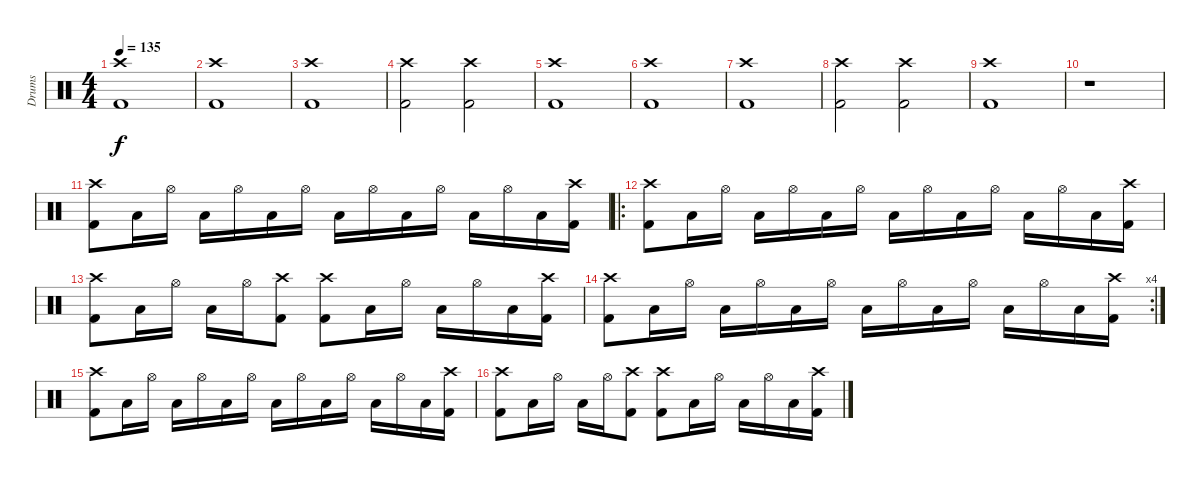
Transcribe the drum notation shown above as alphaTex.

\track ("Drums" "Drums") {instrument percussion}
\staff {score}
\articulation defaults
\ts (4 4)
\tempo 135
\clef neutral
\ks c
("Crash high (hit)" "Kick (hit) 2").1{dy f} |
("Crash high (hit)" "Kick (hit) 2").1 |
("Crash high (hit)" "Kick (hit) 2").1 |
("Crash high (hit)" "Kick (hit) 2").2 ("Crash high (hit)" "Kick (hit) 2").2 |
("Crash high (hit)" "Kick (hit) 2").1 |
("Crash high (hit)" "Kick (hit) 2").1 |
("Crash high (hit)" "Kick (hit) 2").1 |
("Crash high (hit)" "Kick (hit) 2").2 ("Crash high (hit)" "Kick (hit) 2").2 |
("Crash high (hit)" "Kick (hit) 2").1 |
r.1 |
("Crash high (hit)" "Kick (hit) 2").8 "Low Tom (hit)".16 "Hi-Hat (open)".16 "Low Tom (hit)".16 "Hi-Hat (open)".16 "Low Tom (hit)".16 "Hi-Hat (open)".16 "Low Tom (hit)".16 "Hi-Hat (open)".16 "Low Tom (hit)".16 "Hi-Hat (open)".16 "Low Tom (hit)".16 "Hi-Hat (open)".16 "Low Tom (hit)".16 ("Crash high (hit)" "Kick (hit) 2").16 |
\ro
("Crash high (hit)" "Kick (hit) 2").8 "Low Tom (hit)".16 "Hi-Hat (open)".16 "Low Tom (hit)".16 "Hi-Hat (open)".16 "Low Tom (hit)".16 "Hi-Hat (open)".16 "Low Tom (hit)".16 "Hi-Hat (open)".16 "Low Tom (hit)".16 "Hi-Hat (open)".16 "Low Tom (hit)".16 "Hi-Hat (open)".16 "Low Tom (hit)".16 ("Crash high (hit)" "Kick (hit) 2").16 |
("Kick (hit) 2" "Crash high (hit)").8 "Low Tom (hit)".16 "Hi-Hat (open)".16 "Low Tom (hit)".16 "Hi-Hat (open)".16 ("Kick (hit) 2" "Crash high (hit)").8 ("Kick (hit) 2" "Crash high (hit)").8 "Low Tom (hit)".16 "Hi-Hat (open)".16 "Low Tom (hit)".16 "Hi-Hat (open)".16 "Low Tom (hit)".16 ("Crash high (hit)" "Kick (hit) 2").16 |
\rc 4
("Crash high (hit)" "Kick (hit) 2").8 "Low Tom (hit)".16 "Hi-Hat (open)".16 "Low Tom (hit)".16 "Hi-Hat (open)".16 "Low Tom (hit)".16 "Hi-Hat (open)".16 "Low Tom (hit)".16 "Hi-Hat (open)".16 "Low Tom (hit)".16 "Hi-Hat (open)".16 "Low Tom (hit)".16 "Hi-Hat (open)".16 "Low Tom (hit)".16 ("Crash high (hit)" "Kick (hit) 2").16 |
("Crash high (hit)" "Kick (hit) 2").8 "Low Tom (hit)".16 "Hi-Hat (open)".16 "Low Tom (hit)".16 "Hi-Hat (open)".16 "Low Tom (hit)".16 "Hi-Hat (open)".16 "Low Tom (hit)".16 "Hi-Hat (open)".16 "Low Tom (hit)".16 "Hi-Hat (open)".16 "Low Tom (hit)".16 "Hi-Hat (open)".16 "Low Tom (hit)".16 ("Crash high (hit)" "Kick (hit) 2").16 |
("Kick (hit) 2" "Crash high (hit)").8 "Low Tom (hit)".16 "Hi-Hat (open)".16 "Low Tom (hit)".16 "Hi-Hat (open)".16 ("Kick (hit) 2" "Crash high (hit)").8 ("Kick (hit) 2" "Crash high (hit)").8 "Low Tom (hit)".16 "Hi-Hat (open)".16 "Low Tom (hit)".16 "Hi-Hat (open)".16 "Low Tom (hit)".16 ("Crash high (hit)" "Kick (hit) 2").16
